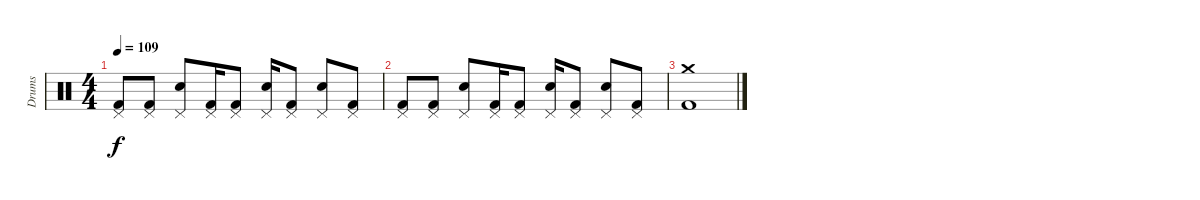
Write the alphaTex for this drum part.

\track ("Drums" "Drums") {instrument percussion}
\staff {score}
\articulation defaults
\ts (4 4)
\tempo 109
\clef neutral
\ks c
("Pedal Hi-Hat (hit)" "Kick (hit) 2").8{dy f} ("Pedal Hi-Hat (hit)" "Kick (hit) 2").8 ("Pedal Hi-Hat (hit)" "Snare (hit) 2").8 ("Pedal Hi-Hat (hit)" "Kick (hit) 2").16 ("Pedal Hi-Hat (hit)" "Kick (hit) 2").8 ("Pedal Hi-Hat (hit)" "Snare (hit) 2").16 ("Pedal Hi-Hat (hit)" "Kick (hit) 2").8 ("Pedal Hi-Hat (hit)" "Snare (hit) 2").8 ("Pedal Hi-Hat (hit)" "Kick (hit) 2").8 |
("Pedal Hi-Hat (hit)" "Kick (hit) 2").8 ("Pedal Hi-Hat (hit)" "Kick (hit) 2").8 ("Pedal Hi-Hat (hit)" "Snare (hit) 2").8 ("Pedal Hi-Hat (hit)" "Kick (hit) 2").16 ("Pedal Hi-Hat (hit)" "Kick (hit) 2").8 ("Pedal Hi-Hat (hit)" "Snare (hit) 2").16 ("Pedal Hi-Hat (hit)" "Kick (hit) 2").8 ("Pedal Hi-Hat (hit)" "Snare (hit) 2").8 ("Pedal Hi-Hat (hit)" "Kick (hit) 2").8 |
("Crash medium (hit)" "Kick (hit) 2").1
